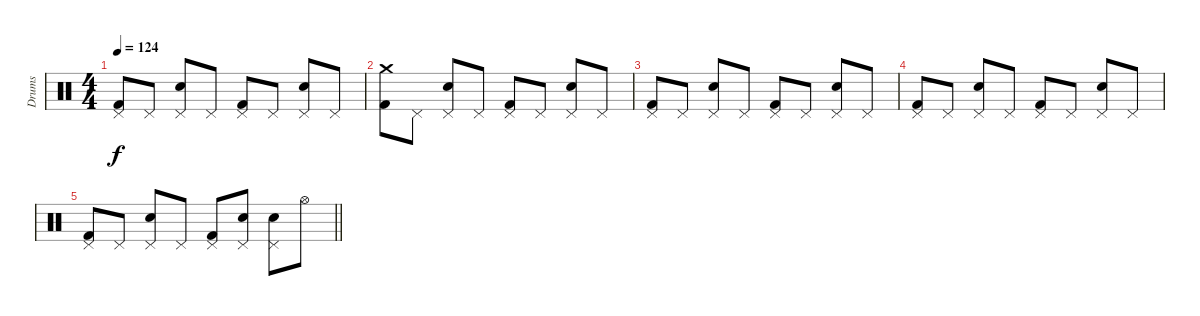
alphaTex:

\track ("Drums" "Drums") {instrument percussion}
\staff {score}
\articulation defaults
\ts (4 4)
\tempo 124
\clef neutral
\ks c
("Kick (hit) 2" "Pedal Hi-Hat (hit)").8{dy f} "Pedal Hi-Hat (hit)".8 ("Electric Snare (hit)" "Pedal Hi-Hat (hit)").8 "Pedal Hi-Hat (hit)".8 ("Kick (hit) 2" "Pedal Hi-Hat (hit)").8 "Pedal Hi-Hat (hit)".8 ("Electric Snare (hit)" "Pedal Hi-Hat (hit)").8 "Pedal Hi-Hat (hit)".8 |
("Kick (hit) 2" "Crash medium (hit)").8 "Pedal Hi-Hat (hit)".8 ("Electric Snare (hit)" "Pedal Hi-Hat (hit)").8 "Pedal Hi-Hat (hit)".8 ("Kick (hit) 2" "Pedal Hi-Hat (hit)").8 "Pedal Hi-Hat (hit)".8 ("Electric Snare (hit)" "Pedal Hi-Hat (hit)").8 "Pedal Hi-Hat (hit)".8 |
("Kick (hit) 2" "Pedal Hi-Hat (hit)").8 "Pedal Hi-Hat (hit)".8 ("Electric Snare (hit)" "Pedal Hi-Hat (hit)").8 "Pedal Hi-Hat (hit)".8 ("Kick (hit) 2" "Pedal Hi-Hat (hit)").8 "Pedal Hi-Hat (hit)".8 ("Electric Snare (hit)" "Pedal Hi-Hat (hit)").8 "Pedal Hi-Hat (hit)".8 |
("Kick (hit) 2" "Pedal Hi-Hat (hit)").8 "Pedal Hi-Hat (hit)".8 ("Electric Snare (hit)" "Pedal Hi-Hat (hit)").8 "Pedal Hi-Hat (hit)".8 ("Kick (hit) 2" "Pedal Hi-Hat (hit)").8 "Pedal Hi-Hat (hit)".8 ("Electric Snare (hit)" "Pedal Hi-Hat (hit)").8 "Pedal Hi-Hat (hit)".8 |
\barLineRight lightlight
("Kick (hit) 2" "Pedal Hi-Hat (hit)").8 "Pedal Hi-Hat (hit)".8 ("Electric Snare (hit)" "Pedal Hi-Hat (hit)").8 "Pedal Hi-Hat (hit)".8 ("Kick (hit) 2" "Pedal Hi-Hat (hit)").8 ("Electric Snare (hit)" "Pedal Hi-Hat (hit)").8 ("Electric Snare (hit)" "Pedal Hi-Hat (hit)").8 "Hi-Hat (open)".8
